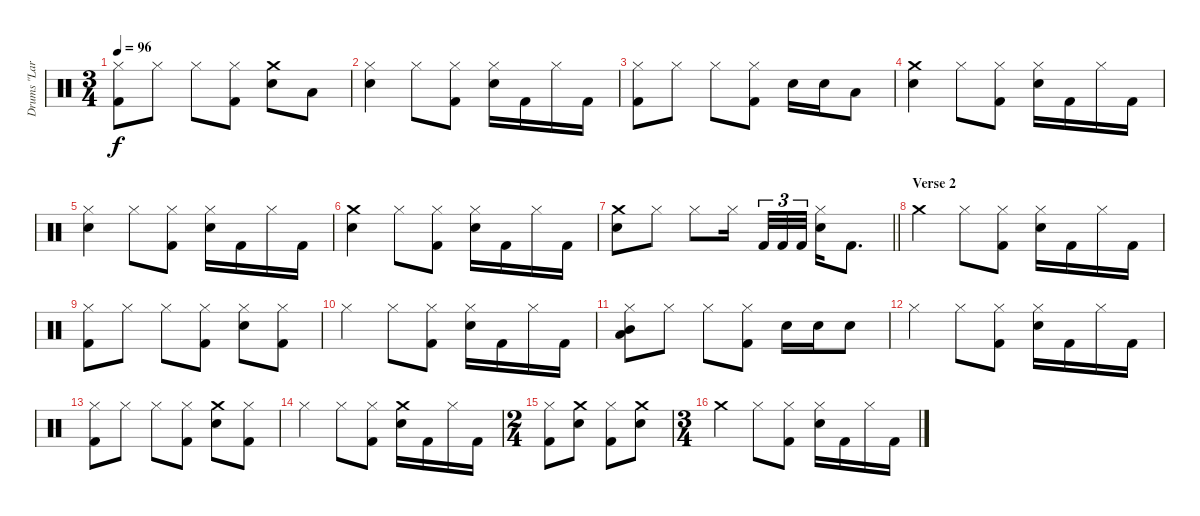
\track ("Drums \"Lars Ulrich\"" "Drums \"Lar") {instrument percussion}
\staff {score}
\articulation defaults
\ts (3 4)
\tempo 96
\clef neutral
\ks c
("Hi-Hat (closed)" "Kick (hit) 2").8{dy f} "Hi-Hat (closed)".8 "Hi-Hat (closed)".8 ("Hi-Hat (closed)" "Kick (hit) 2").8 ("Crash medium (hit)" "Electric Snare (hit)").8 "Low Tom (hit)".8 |
("Hi-Hat (closed)" "Electric Snare (hit)").4 "Hi-Hat (closed)".8 ("Hi-Hat (closed)" "Kick (hit) 2").8 ("Hi-Hat (closed)" "Electric Snare (hit)").16 "Kick (hit) 2".16 "Hi-Hat (closed)".16 "Kick (hit) 2".16 |
("Hi-Hat (closed)" "Kick (hit) 2").8 "Hi-Hat (closed)".8 "Hi-Hat (closed)".8 ("Hi-Hat (closed)" "Kick (hit) 2").8 "Electric Snare (hit)".16 "Electric Snare (hit)".16 "Low Tom (hit)".8 |
("Crash medium (hit)" "Electric Snare (hit)").4 "Hi-Hat (closed)".8 ("Hi-Hat (closed)" "Kick (hit) 2").8 ("Hi-Hat (closed)" "Electric Snare (hit)").16 "Kick (hit) 2".16 "Hi-Hat (closed)".16 "Kick (hit) 2".16 |
("Hi-Hat (closed)" "Electric Snare (hit)").4 "Hi-Hat (closed)".8 ("Hi-Hat (closed)" "Kick (hit) 2").8 ("Hi-Hat (closed)" "Electric Snare (hit)").16 "Kick (hit) 2".16 "Hi-Hat (closed)".16 "Kick (hit) 2".16 |
("Crash medium (hit)" "Electric Snare (hit)").4 "Hi-Hat (closed)".8 ("Hi-Hat (closed)" "Kick (hit) 2").8 ("Hi-Hat (closed)" "Electric Snare (hit)").16 "Kick (hit) 2".16 "Hi-Hat (closed)".16 "Kick (hit) 2".16 |
\barLineRight lightlight
("Crash medium (hit)" "Electric Snare (hit)").8 "Hi-Hat (closed)".8 "Hi-Hat (closed)".8 "Hi-Hat (closed)".16{beam splitsecondary} "Kick (hit) 2".32{tu (3 2)} "Kick (hit) 2".32{tu (3 2)} "Kick (hit) 2".32{tu (3 2)} ("Hi-Hat (closed)" "Electric Snare (hit)").16 "Kick (hit) 2".8{d} |
\section ("" "Verse 2")
"Crash medium (hit)".4 "Hi-Hat (closed)".8 ("Hi-Hat (closed)" "Kick (hit) 2").8 ("Hi-Hat (closed)" "Electric Snare (hit)").16 "Kick (hit) 2".16 "Hi-Hat (closed)".16 "Kick (hit) 2".16 |
("Hi-Hat (closed)" "Kick (hit) 2").8 "Hi-Hat (closed)".8 "Hi-Hat (closed)".8 ("Hi-Hat (closed)" "Kick (hit) 2").8 ("Hi-Hat (closed)" "Electric Snare (hit)").8 ("Hi-Hat (closed)" "Kick (hit) 2").8 |
"Hi-Hat (closed)".4 "Hi-Hat (closed)".8 ("Hi-Hat (closed)" "Kick (hit) 2").8 ("Hi-Hat (closed)" "Electric Snare (hit)").16 "Kick (hit) 2".16 "Hi-Hat (closed)".16 "Kick (hit) 2".16 |
("Mid Tom (hit)" "Low Tom (hit)" "Hi-Hat (closed)").8 "Hi-Hat (closed)".8 "Hi-Hat (closed)".8 ("Hi-Hat (closed)" "Kick (hit) 2").8 "Electric Snare (hit)".16 "Electric Snare (hit)".16 "Electric Snare (hit)".8 |
"Hi-Hat (closed)".4 "Hi-Hat (closed)".8 ("Hi-Hat (closed)" "Kick (hit) 2").8 ("Hi-Hat (closed)" "Electric Snare (hit)").16 "Kick (hit) 2".16 "Hi-Hat (closed)".16 "Kick (hit) 2".16 |
("Hi-Hat (closed)" "Kick (hit) 2").8 "Hi-Hat (closed)".8 "Hi-Hat (closed)".8 ("Hi-Hat (closed)" "Kick (hit) 2").8 ("Crash medium (hit)" "Electric Snare (hit)").8 ("Hi-Hat (closed)" "Kick (hit) 2").8 |
"Hi-Hat (closed)".4 "Hi-Hat (closed)".8 ("Hi-Hat (closed)" "Kick (hit) 2").8 ("Crash medium (hit)" "Electric Snare (hit)").16 "Kick (hit) 2".16 "Hi-Hat (closed)".16 "Kick (hit) 2".16 |
\ts (2 4)
("Hi-Hat (closed)" "Kick (hit) 2").8 ("Crash medium (hit)" "Electric Snare (hit)").8 ("Hi-Hat (closed)" "Kick (hit) 2").8 ("Crash medium (hit)" "Electric Snare (hit)").8 |
\ts (3 4)
"Crash medium (hit)".4 "Hi-Hat (closed)".8 ("Hi-Hat (closed)" "Kick (hit) 2").8 ("Hi-Hat (closed)" "Electric Snare (hit)").16 "Kick (hit) 2".16 "Hi-Hat (closed)".16 "Kick (hit) 2".16
